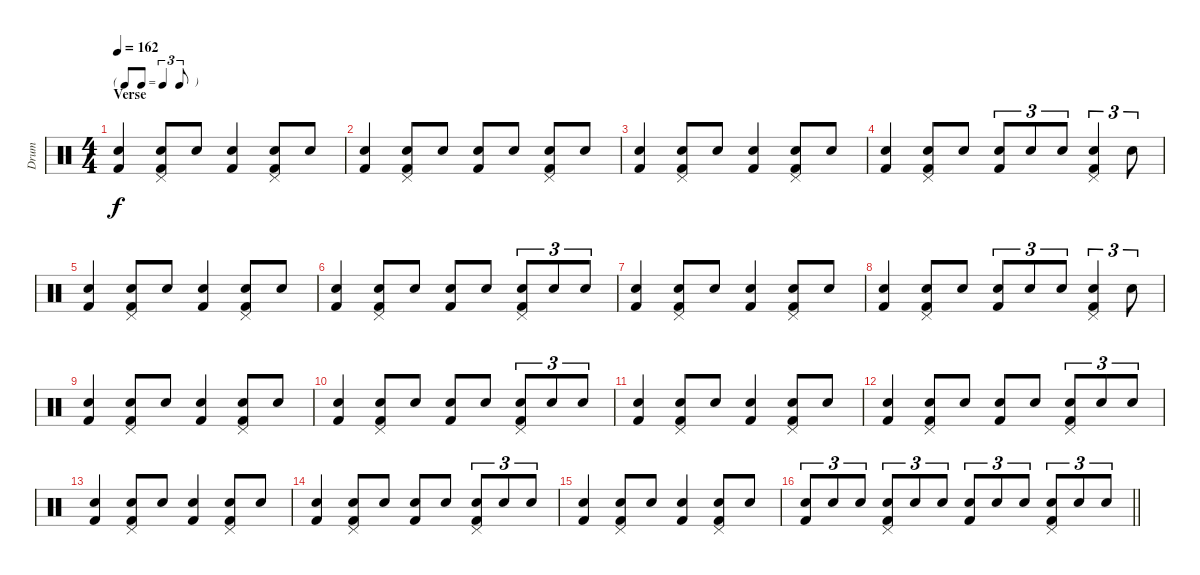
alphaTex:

\track ("Drum" "Drum") {instrument percussion}
\staff {score}
\articulation defaults
\ts (4 4)
\tf triplet8th
\section ("" "Verse")
\tempo 162
\clef neutral
\ks c
("Snare (hit) 2" "Kick (hit) 2").4{dy f} ("Pedal Hi-Hat (hit)" "Snare (hit) 2" "Kick (hit) 2").8 "Snare (hit) 2".8 ("Snare (hit) 2" "Kick (hit) 2").4 ("Pedal Hi-Hat (hit)" "Snare (hit) 2" "Kick (hit) 2").8 "Snare (hit) 2".8 |
("Snare (hit) 2" "Kick (hit) 2").4 ("Pedal Hi-Hat (hit)" "Snare (hit) 2" "Kick (hit) 2").8 "Snare (hit) 2".8 ("Snare (hit) 2" "Kick (hit) 2").8 "Snare (hit) 2".8 ("Pedal Hi-Hat (hit)" "Snare (hit) 2" "Kick (hit) 2").8 "Snare (hit) 2".8 |
("Snare (hit) 2" "Kick (hit) 2").4 ("Pedal Hi-Hat (hit)" "Snare (hit) 2" "Kick (hit) 2").8 "Snare (hit) 2".8 ("Snare (hit) 2" "Kick (hit) 2").4 ("Pedal Hi-Hat (hit)" "Snare (hit) 2" "Kick (hit) 2").8 "Snare (hit) 2".8 |
("Snare (hit) 2" "Kick (hit) 2").4 ("Pedal Hi-Hat (hit)" "Snare (hit) 2" "Kick (hit) 2").8 "Snare (hit) 2".8 ("Snare (hit) 2" "Kick (hit) 2").8{tu (3 2)} "Snare (hit) 2".8{tu (3 2)} "Snare (hit) 2".8{tu (3 2)} ("Pedal Hi-Hat (hit)" "Snare (hit) 2" "Kick (hit) 2").4{tu (3 2)} "Snare (hit) 2".8{tu (3 2)} |
("Snare (hit) 2" "Kick (hit) 2").4 ("Pedal Hi-Hat (hit)" "Snare (hit) 2" "Kick (hit) 2").8 "Snare (hit) 2".8 ("Snare (hit) 2" "Kick (hit) 2").4 ("Pedal Hi-Hat (hit)" "Snare (hit) 2" "Kick (hit) 2").8 "Snare (hit) 2".8 |
("Snare (hit) 2" "Kick (hit) 2").4 ("Pedal Hi-Hat (hit)" "Snare (hit) 2" "Kick (hit) 2").8 "Snare (hit) 2".8 ("Snare (hit) 2" "Kick (hit) 2").8 "Snare (hit) 2".8 ("Pedal Hi-Hat (hit)" "Snare (hit) 2" "Kick (hit) 2").8{tu (3 2)} "Snare (hit) 2".8{tu (3 2)} "Snare (hit) 2".8{tu (3 2)} |
("Snare (hit) 2" "Kick (hit) 2").4 ("Pedal Hi-Hat (hit)" "Snare (hit) 2" "Kick (hit) 2").8 "Snare (hit) 2".8 ("Snare (hit) 2" "Kick (hit) 2").4 ("Pedal Hi-Hat (hit)" "Snare (hit) 2" "Kick (hit) 2").8 "Snare (hit) 2".8 |
("Snare (hit) 2" "Kick (hit) 2").4 ("Pedal Hi-Hat (hit)" "Snare (hit) 2" "Kick (hit) 2").8 "Snare (hit) 2".8 ("Snare (hit) 2" "Kick (hit) 2").8{tu (3 2)} "Snare (hit) 2".8{tu (3 2)} "Snare (hit) 2".8{tu (3 2)} ("Pedal Hi-Hat (hit)" "Snare (hit) 2" "Kick (hit) 2").4{tu (3 2)} "Snare (hit) 2".8{tu (3 2)} |
("Snare (hit) 2" "Kick (hit) 2").4 ("Pedal Hi-Hat (hit)" "Snare (hit) 2" "Kick (hit) 2").8 "Snare (hit) 2".8 ("Snare (hit) 2" "Kick (hit) 2").4 ("Pedal Hi-Hat (hit)" "Snare (hit) 2" "Kick (hit) 2").8 "Snare (hit) 2".8 |
("Snare (hit) 2" "Kick (hit) 2").4 ("Pedal Hi-Hat (hit)" "Snare (hit) 2" "Kick (hit) 2").8 "Snare (hit) 2".8 ("Snare (hit) 2" "Kick (hit) 2").8 "Snare (hit) 2".8 ("Pedal Hi-Hat (hit)" "Snare (hit) 2" "Kick (hit) 2").8{tu (3 2)} "Snare (hit) 2".8{tu (3 2)} "Snare (hit) 2".8{tu (3 2)} |
("Snare (hit) 2" "Kick (hit) 2").4 ("Pedal Hi-Hat (hit)" "Snare (hit) 2" "Kick (hit) 2").8 "Snare (hit) 2".8 ("Snare (hit) 2" "Kick (hit) 2").4 ("Pedal Hi-Hat (hit)" "Snare (hit) 2" "Kick (hit) 2").8 "Snare (hit) 2".8 |
("Snare (hit) 2" "Kick (hit) 2").4 ("Pedal Hi-Hat (hit)" "Snare (hit) 2" "Kick (hit) 2").8 "Snare (hit) 2".8 ("Snare (hit) 2" "Kick (hit) 2").8 "Snare (hit) 2".8 ("Pedal Hi-Hat (hit)" "Snare (hit) 2" "Kick (hit) 2").8{tu (3 2)} "Snare (hit) 2".8{tu (3 2)} "Snare (hit) 2".8{tu (3 2)} |
("Snare (hit) 2" "Kick (hit) 2").4 ("Pedal Hi-Hat (hit)" "Snare (hit) 2" "Kick (hit) 2").8 "Snare (hit) 2".8 ("Snare (hit) 2" "Kick (hit) 2").4 ("Pedal Hi-Hat (hit)" "Snare (hit) 2" "Kick (hit) 2").8 "Snare (hit) 2".8 |
("Snare (hit) 2" "Kick (hit) 2").4 ("Pedal Hi-Hat (hit)" "Snare (hit) 2" "Kick (hit) 2").8 "Snare (hit) 2".8 ("Snare (hit) 2" "Kick (hit) 2").8 "Snare (hit) 2".8 ("Pedal Hi-Hat (hit)" "Snare (hit) 2" "Kick (hit) 2").8{tu (3 2)} "Snare (hit) 2".8{tu (3 2)} "Snare (hit) 2".8{tu (3 2)} |
("Snare (hit) 2" "Kick (hit) 2").4 ("Pedal Hi-Hat (hit)" "Snare (hit) 2" "Kick (hit) 2").8 "Snare (hit) 2".8 ("Snare (hit) 2" "Kick (hit) 2").4 ("Pedal Hi-Hat (hit)" "Snare (hit) 2" "Kick (hit) 2").8 "Snare (hit) 2".8 |
\barLineRight lightlight
("Snare (hit) 2" "Kick (hit) 2").8{tu (3 2)} "Snare (hit) 2".8{tu (3 2)} "Snare (hit) 2".8{tu (3 2)} ("Pedal Hi-Hat (hit)" "Snare (hit) 2" "Kick (hit) 2").8{tu (3 2)} "Snare (hit) 2".8{tu (3 2)} "Snare (hit) 2".8{tu (3 2)} ("Snare (hit) 2" "Kick (hit) 2").8{tu (3 2)} "Snare (hit) 2".8{tu (3 2)} "Snare (hit) 2".8{tu (3 2)} ("Pedal Hi-Hat (hit)" "Snare (hit) 2" "Kick (hit) 2").8{tu (3 2)} "Snare (hit) 2".8{tu (3 2)} "Snare (hit) 2".8{tu (3 2)}
